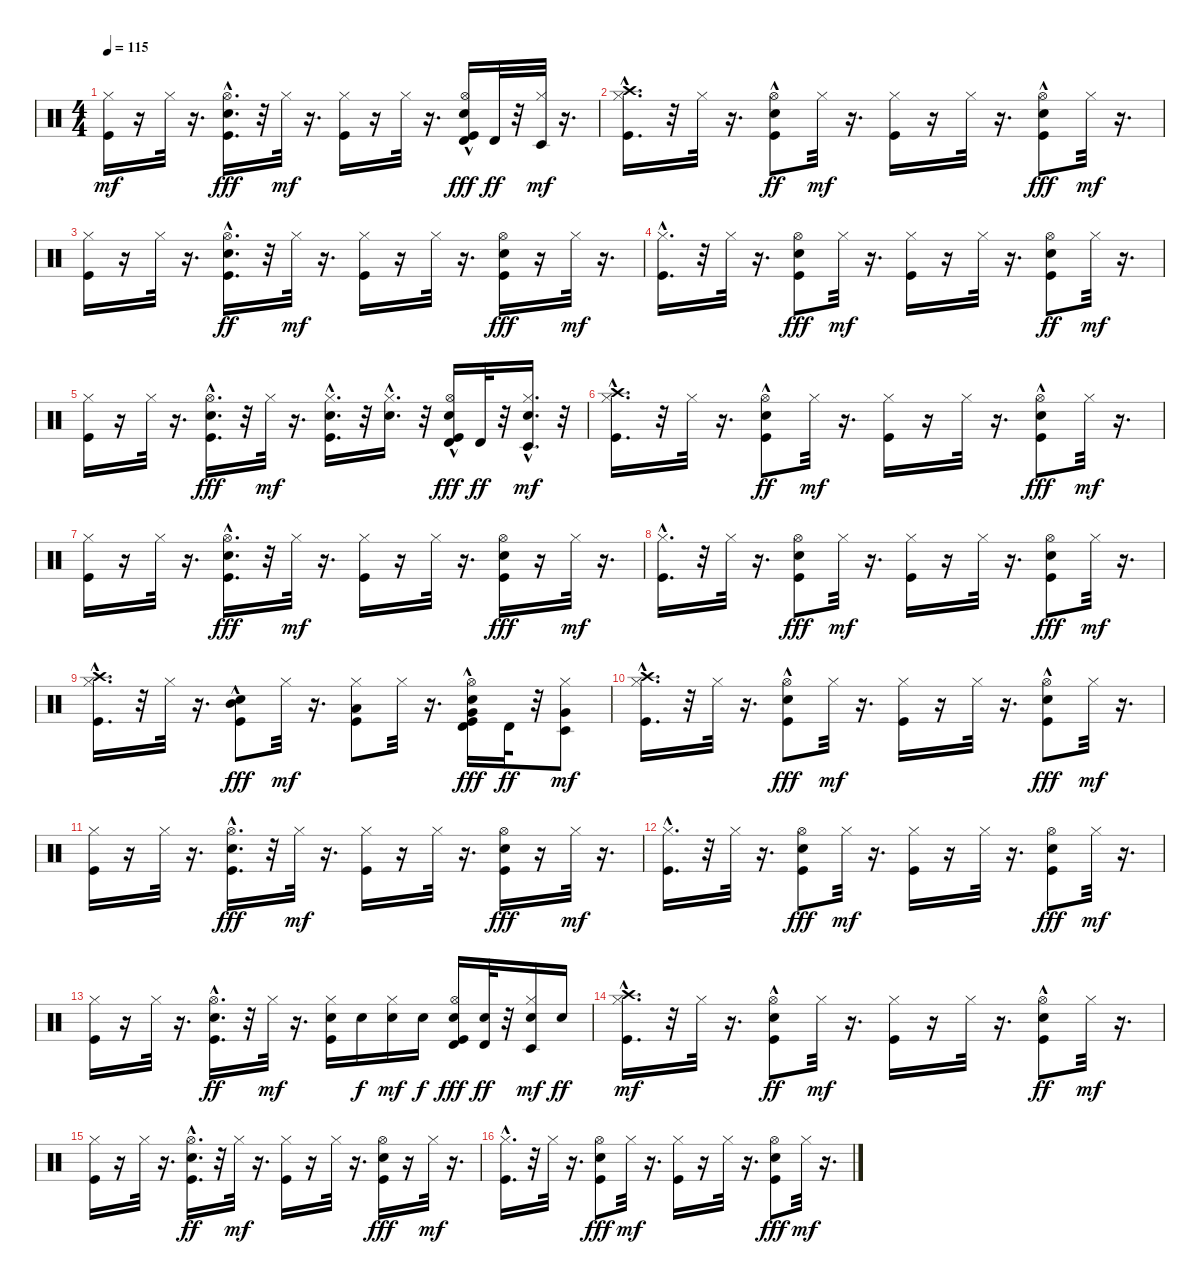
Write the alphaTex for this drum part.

\track "" {instrument percussion}
\staff {score}
\articulation defaults
\ts (4 4)
\tempo 115
\clef neutral
\ks c
("Kick (hit)" "Hi-Hat (closed)").16{dy mf} r.16 "Hi-Hat (closed)".32 r.16{d} ("Hi-Hat (open)"{hac} "Electric Snare (hit)" "Kick (hit)").16{d dy fff} r.32 "Hi-Hat (closed)".32{dy mf} r.16{d} ("Kick (hit)" "Hi-Hat (closed)").16 r.16 "Hi-Hat (closed)".32 r.16{d} ("Electric Snare (hit)"{hac} "Hi-Hat (open)" "Timbale high (hit)" "Kick (hit)").16{dy fff} "Timbale high (hit)".32{dy ff} r.32 ("Timbale low (hit)" "Hi-Hat (closed)").32{dy mf} r.16{d} |
("Crash high (hit)" "Kick (hit)"{hac} "Hi-Hat (closed)").16{d} r.32 "Hi-Hat (closed)".32 r.16{d} ("Hi-Hat (open)" "Kick (hit)" "Electric Snare (hit)"{hac}).8{dy ff} "Hi-Hat (closed)".32{dy mf} r.16{d} ("Kick (hit)" "Hi-Hat (closed)").16 r.16 "Hi-Hat (closed)".32 r.16{d} ("Kick (hit)" "Hi-Hat (open)" "Electric Snare (hit)"{hac}).8{dy fff} "Hi-Hat (closed)".32{dy mf} r.16{d} |
("Kick (hit)" "Hi-Hat (closed)").16 r.16 "Hi-Hat (closed)".32 r.16{d} ("Kick (hit)" "Electric Snare (hit)" "Hi-Hat (open)"{hac}).16{d dy ff} r.32 "Hi-Hat (closed)".32{dy mf} r.16{d} ("Kick (hit)" "Hi-Hat (closed)").16 r.16 "Hi-Hat (closed)".32 r.16{d} ("Electric Snare (hit)" "Hi-Hat (open)" "Kick (hit)").16{dy fff} r.16 "Hi-Hat (closed)".32{dy mf} r.16{d} |
("Kick (hit)"{hac} "Hi-Hat (closed)").16{d} r.32 "Hi-Hat (closed)".32 r.16{d} ("Hi-Hat (open)" "Electric Snare (hit)" "Kick (hit)").8{dy fff} "Hi-Hat (closed)".32{dy mf} r.16{d} ("Kick (hit)" "Hi-Hat (closed)").16 r.16 "Hi-Hat (closed)".32 r.16{d} ("Kick (hit)" "Electric Snare (hit)" "Hi-Hat (open)").8{dy ff} "Hi-Hat (closed)".32{dy mf} r.16{d} |
("Kick (hit)" "Hi-Hat (closed)").16 r.16 "Hi-Hat (closed)".32 r.16{d} ("Electric Snare (hit)" "Hi-Hat (open)"{hac} "Kick (hit)").16{d dy fff} r.32 "Hi-Hat (closed)".32{dy mf} r.16{d} ("Electric Snare (hit)"{hac} "Kick (hit)"{hac} "Hi-Hat (closed)").16{d} r.32 ("Electric Snare (hit)"{hac} "Hi-Hat (closed)").16{d} r.32 ("Hi-Hat (open)" "Timbale high (hit)" "Kick (hit)" "Electric Snare (hit)"{hac}).16{dy fff} "Timbale high (hit)".32{dy ff} r.32 ("Electric Snare (hit)"{hac} "Timbale low (hit)" "Hi-Hat (closed)").16{d dy mf} r.32 |
("Kick (hit)"{hac} "Crash high (hit)" "Hi-Hat (closed)").16{d} r.32 "Hi-Hat (closed)".32 r.16{d} ("Kick (hit)" "Electric Snare (hit)"{hac} "Hi-Hat (open)").8{dy ff} "Hi-Hat (closed)".32{dy mf} r.16{d} ("Kick (hit)" "Hi-Hat (closed)").16 r.16 "Hi-Hat (closed)".32 r.16{d} ("Hi-Hat (open)" "Electric Snare (hit)"{hac} "Kick (hit)").8{dy fff} "Hi-Hat (closed)".32{dy mf} r.16{d} |
("Kick (hit)" "Hi-Hat (closed)").16 r.16 "Hi-Hat (closed)".32 r.16{d} ("Electric Snare (hit)" "Kick (hit)" "Hi-Hat (open)"{hac}).16{d dy fff} r.32 "Hi-Hat (closed)".32{dy mf} r.16{d} ("Kick (hit)" "Hi-Hat (closed)").16 r.16 "Hi-Hat (closed)".32 r.16{d} ("Hi-Hat (open)" "Electric Snare (hit)" "Kick (hit)").16{dy fff} r.16 "Hi-Hat (closed)".32{dy mf} r.16{d} |
("Kick (hit)"{hac} "Hi-Hat (closed)").16{d} r.32 "Hi-Hat (closed)".32 r.16{d} ("Electric Snare (hit)" "Hi-Hat (open)" "Kick (hit)").8{dy fff} "Hi-Hat (closed)".32{dy mf} r.16{d} ("Kick (hit)" "Hi-Hat (closed)").16 r.16 "Hi-Hat (closed)".32 r.16{d} ("Hi-Hat (open)" "Kick (hit)" "Electric Snare (hit)").8{dy fff} "Hi-Hat (closed)".32{dy mf} r.16{d} |
("Kick (hit)"{hac} "Crash high (hit)" "Hi-Hat (closed)").16{d} r.32 "Hi-Hat (closed)".32 r.16{d} ("Electric Snare (hit)"{hac} "Mid Tom (hit)" "Kick (hit)").8{dy fff} "Hi-Hat (closed)".32{dy mf} r.16{d} ("Kick (hit)" "Low Tom (hit)" "Hi-Hat (closed)").8 "Hi-Hat (closed)".32 r.16{d} ("Electric Snare (hit)"{hac} "Hi-Hat (open)" "Timbale high (hit)" "Very Low Tom (hit)" "Kick (hit)").16{dy fff} "Timbale high (hit)".32{dy ff} r.32 ("Very Low Tom (hit)" "Timbale low (hit)" "Hi-Hat (closed)").8{dy mf} |
("Kick (hit)"{hac} "Crash high (hit)" "Hi-Hat (closed)").16{d} r.32 "Hi-Hat (closed)".32 r.16{d} ("Electric Snare (hit)"{hac} "Hi-Hat (open)" "Kick (hit)").8{dy fff} "Hi-Hat (closed)".32{dy mf} r.16{d} ("Kick (hit)" "Hi-Hat (closed)").16 r.16 "Hi-Hat (closed)".32 r.16{d} ("Hi-Hat (open)" "Kick (hit)" "Electric Snare (hit)"{hac}).8{dy fff} "Hi-Hat (closed)".32{dy mf} r.16{d} |
("Kick (hit)" "Hi-Hat (closed)").16 r.16 "Hi-Hat (closed)".32 r.16{d} ("Electric Snare (hit)" "Hi-Hat (open)"{hac} "Kick (hit)").16{d dy fff} r.32 "Hi-Hat (closed)".32{dy mf} r.16{d} ("Kick (hit)" "Hi-Hat (closed)").16 r.16 "Hi-Hat (closed)".32 r.16{d} ("Hi-Hat (open)" "Electric Snare (hit)" "Kick (hit)").16{dy fff} r.16 "Hi-Hat (closed)".32{dy mf} r.16{d} |
("Kick (hit)"{hac} "Hi-Hat (closed)").16{d} r.32 "Hi-Hat (closed)".32 r.16{d} ("Hi-Hat (open)" "Kick (hit)" "Electric Snare (hit)").8{dy fff} "Hi-Hat (closed)".32{dy mf} r.16{d} ("Kick (hit)" "Hi-Hat (closed)").16 r.16 "Hi-Hat (closed)".32 r.16{d} ("Electric Snare (hit)" "Hi-Hat (open)" "Kick (hit)").8{dy fff} "Hi-Hat (closed)".32{dy mf} r.16{d} |
("Kick (hit)" "Hi-Hat (closed)").16 r.16 "Hi-Hat (closed)".32 r.16{d} ("Hi-Hat (open)"{hac} "Kick (hit)" "Electric Snare (hit)").16{d dy ff} r.32 "Hi-Hat (closed)".32{dy mf} r.16{d} ("Kick (hit)" "Electric Snare (hit)" "Hi-Hat (closed)").16 "Electric Snare (hit)".16{dy f} ("Electric Snare (hit)" "Hi-Hat (closed)").16{dy mf} "Electric Snare (hit)".16{dy f} ("Electric Snare (hit)" "Timbale high (hit)" "Hi-Hat (open)" "Kick (hit)").16{dy fff} ("Electric Snare (hit)" "Timbale high (hit)").32{dy ff} r.32 ("Timbale low (hit)" "Electric Snare (hit)" "Hi-Hat (closed)").16{dy mf} "Electric Snare (hit)".16{dy ff} |
("Kick (hit)"{hac} "Crash high (hit)" "Hi-Hat (closed)").16{d dy mf} r.32 "Hi-Hat (closed)".32 r.16{d} ("Kick (hit)" "Electric Snare (hit)"{hac} "Hi-Hat (open)").8{dy ff} "Hi-Hat (closed)".32{dy mf} r.16{d} ("Kick (hit)" "Hi-Hat (closed)").16 r.16 "Hi-Hat (closed)".32 r.16{d} ("Electric Snare (hit)"{hac} "Kick (hit)" "Hi-Hat (open)").8{dy ff} "Hi-Hat (closed)".32{dy mf} r.16{d} |
("Kick (hit)" "Hi-Hat (closed)").16 r.16 "Hi-Hat (closed)".32 r.16{d} ("Kick (hit)" "Hi-Hat (open)"{hac} "Electric Snare (hit)").16{d dy ff} r.32 "Hi-Hat (closed)".32{dy mf} r.16{d} ("Kick (hit)" "Hi-Hat (closed)").16 r.16 "Hi-Hat (closed)".32 r.16{d} ("Electric Snare (hit)" "Hi-Hat (open)" "Kick (hit)").16{dy fff} r.16 "Hi-Hat (closed)".32{dy mf} r.16{d} |
("Kick (hit)"{hac} "Hi-Hat (closed)").16{d} r.32 "Hi-Hat (closed)".32 r.16{d} ("Hi-Hat (open)" "Electric Snare (hit)" "Kick (hit)").8{dy fff} "Hi-Hat (closed)".32{dy mf} r.16{d} ("Kick (hit)" "Hi-Hat (closed)").16 r.16 "Hi-Hat (closed)".32 r.16{d} ("Hi-Hat (open)" "Kick (hit)" "Electric Snare (hit)").8{dy fff} "Hi-Hat (closed)".32{dy mf} r.16{d}
